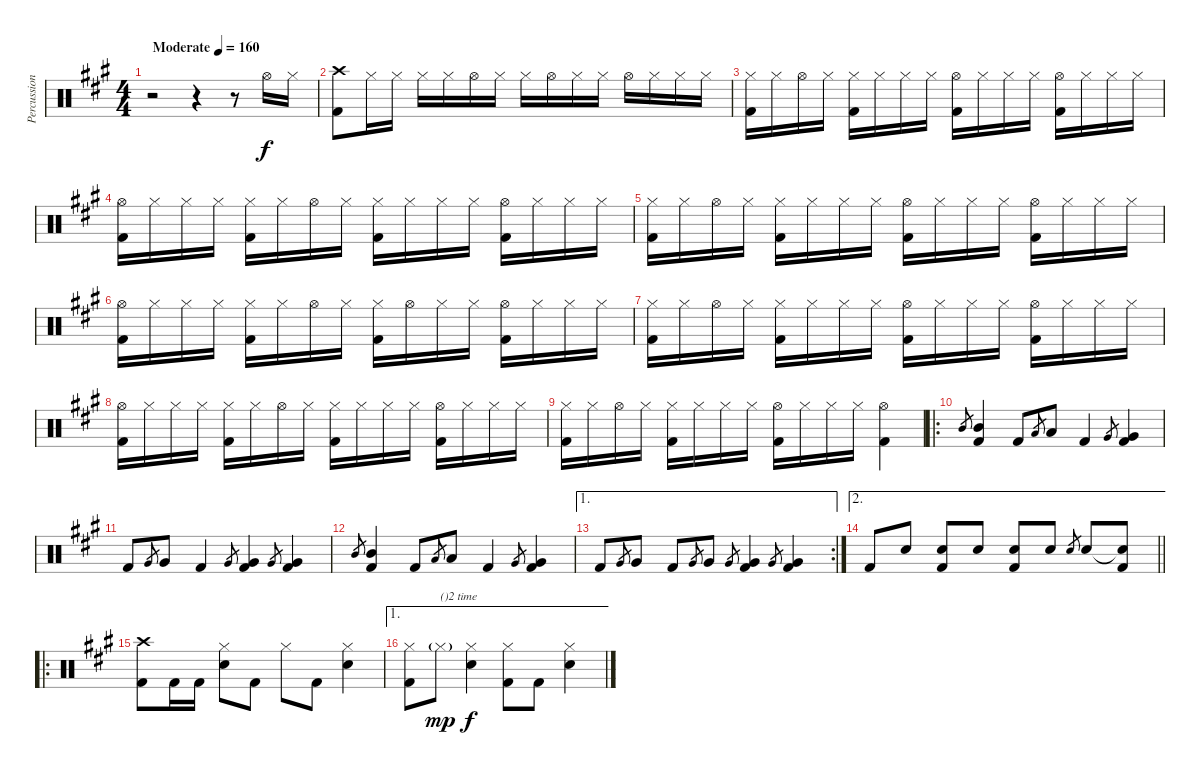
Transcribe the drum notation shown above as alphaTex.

\track ("Percussions" "Percussion") {instrument percussion}
\staff {score}
\articulation defaults
\ts (4 4)
\tempo (160 "Moderate")
\clef neutral
\ks a
r.2{dy f} r.4 r.8 "Hi-Hat (open)".16 "Hi-Hat (closed)".16 |
("Kick (hit) 2" "Crash high (hit)").8 "Hi-Hat (closed)".16 "Hi-Hat (closed)".16 "Hi-Hat (closed)".16 "Hi-Hat (closed)".16 "Hi-Hat (open)".16 "Hi-Hat (closed)".16 "Hi-Hat (closed)".16 "Hi-Hat (open)".16 "Hi-Hat (closed)".16 "Hi-Hat (closed)".16 "Hi-Hat (open)".16 "Hi-Hat (closed)".16 "Hi-Hat (closed)".16 "Hi-Hat (closed)".16 |
("Hi-Hat (closed)" "Kick (hit) 2").16 "Hi-Hat (closed)".16 "Hi-Hat (open)".16 "Hi-Hat (closed)".16 ("Hi-Hat (closed)" "Kick (hit) 2").16 "Hi-Hat (closed)".16 "Hi-Hat (closed)".16 "Hi-Hat (closed)".16 ("Hi-Hat (open)" "Kick (hit) 2").16 "Hi-Hat (closed)".16 "Hi-Hat (closed)".16 "Hi-Hat (closed)".16 ("Hi-Hat (open)" "Kick (hit) 2").16 "Hi-Hat (closed)".16 "Hi-Hat (closed)".16 "Hi-Hat (closed)".16 |
("Hi-Hat (open)" "Kick (hit) 2").16 "Hi-Hat (closed)".16 "Hi-Hat (closed)".16 "Hi-Hat (closed)".16 ("Hi-Hat (closed)" "Kick (hit) 2").16 "Hi-Hat (closed)".16 "Hi-Hat (open)".16 "Hi-Hat (closed)".16 ("Hi-Hat (closed)" "Kick (hit) 2").16 "Hi-Hat (closed)".16 "Hi-Hat (closed)".16 "Hi-Hat (closed)".16 ("Hi-Hat (open)" "Kick (hit) 2").16 "Hi-Hat (closed)".16 "Hi-Hat (closed)".16 "Hi-Hat (closed)".16 |
("Hi-Hat (closed)" "Kick (hit) 2").16 "Hi-Hat (closed)".16 "Hi-Hat (open)".16 "Hi-Hat (closed)".16 ("Hi-Hat (closed)" "Kick (hit) 2").16 "Hi-Hat (closed)".16 "Hi-Hat (closed)".16 "Hi-Hat (closed)".16 ("Hi-Hat (open)" "Kick (hit) 2").16 "Hi-Hat (closed)".16 "Hi-Hat (closed)".16 "Hi-Hat (closed)".16 ("Hi-Hat (open)" "Kick (hit) 2").16 "Hi-Hat (closed)".16 "Hi-Hat (closed)".16 "Hi-Hat (closed)".16 |
("Hi-Hat (open)" "Kick (hit) 2").16 "Hi-Hat (closed)".16 "Hi-Hat (closed)".16 "Hi-Hat (closed)".16 ("Hi-Hat (closed)" "Kick (hit) 2").16 "Hi-Hat (closed)".16 "Hi-Hat (open)".16 "Hi-Hat (closed)".16 ("Hi-Hat (closed)" "Kick (hit) 2").16 "Hi-Hat (open)".16 "Hi-Hat (closed)".16 "Hi-Hat (closed)".16 ("Hi-Hat (open)" "Kick (hit) 2").16 "Hi-Hat (closed)".16 "Hi-Hat (closed)".16 "Hi-Hat (closed)".16 |
("Hi-Hat (closed)" "Kick (hit) 2").16 "Hi-Hat (closed)".16 "Hi-Hat (open)".16 "Hi-Hat (closed)".16 ("Hi-Hat (closed)" "Kick (hit) 2").16 "Hi-Hat (closed)".16 "Hi-Hat (closed)".16 "Hi-Hat (closed)".16 ("Hi-Hat (open)" "Kick (hit) 2").16 "Hi-Hat (closed)".16 "Hi-Hat (closed)".16 "Hi-Hat (closed)".16 ("Hi-Hat (open)" "Kick (hit) 2").16 "Hi-Hat (closed)".16 "Hi-Hat (closed)".16 "Hi-Hat (closed)".16 |
("Hi-Hat (open)" "Kick (hit) 2").16 "Hi-Hat (closed)".16 "Hi-Hat (closed)".16 "Hi-Hat (closed)".16 ("Hi-Hat (closed)" "Kick (hit) 2").16 "Hi-Hat (closed)".16 "Hi-Hat (open)".16 "Hi-Hat (closed)".16 ("Hi-Hat (closed)" "Kick (hit) 2").16 "Hi-Hat (closed)".16 "Hi-Hat (closed)".16 "Hi-Hat (closed)".16 ("Hi-Hat (open)" "Kick (hit) 2").16 "Hi-Hat (closed)".16 "Hi-Hat (closed)".16 "Hi-Hat (closed)".16 |
("Hi-Hat (closed)" "Kick (hit) 2").16 "Hi-Hat (closed)".16 "Hi-Hat (open)".16 "Hi-Hat (closed)".16 ("Hi-Hat (closed)" "Kick (hit) 2").16 "Hi-Hat (closed)".16 "Hi-Hat (closed)".16 "Hi-Hat (closed)".16 ("Hi-Hat (open)" "Kick (hit) 2").16 "Hi-Hat (closed)".16 "Hi-Hat (closed)".16 "Hi-Hat (closed)".16 ("Hi-Hat (open)" "Kick (hit) 2").4 |
\ro "Mid Tom (hit)".8{gr}
("Kick (hit) 2" "Mid Tom (hit)").4 "Kick (hit) 2".8 "Low Tom (hit)".8{gr} "Low Tom (hit)".8 "Kick (hit) 2".4 "Very Low Tom (hit)".8{gr} ("Kick (hit) 2" "Very Low Tom (hit)").4 |
"Kick (hit) 2".8 "Very Low Tom (hit)".8{gr} "Very Low Tom (hit)".8 "Kick (hit) 2".4 "Very Low Tom (hit)".8{gr} ("Kick (hit) 2" "Very Low Tom (hit)").4 "Very Low Tom (hit)".8{gr} ("Kick (hit) 2" "Very Low Tom (hit)").4 |
"Mid Tom (hit)".8{gr} ("Kick (hit) 2" "Mid Tom (hit)").4 "Kick (hit) 2".8 "Low Tom (hit)".8{gr} "Low Tom (hit)".8 "Kick (hit) 2".4 "Very Low Tom (hit)".8{gr} ("Kick (hit) 2" "Very Low Tom (hit)").4 |
\ae 1
\rc 2 "Kick (hit) 2".8 "Very Low Tom (hit)".8{gr} "Very Low Tom (hit)".8 "Kick (hit) 2".8 "Very Low Tom (hit)".8{gr} "Very Low Tom (hit)".8 "Very Low Tom (hit)".8{gr}
("Kick (hit) 2" "Very Low Tom (hit)").4 "Very Low Tom (hit)".8{gr} ("Kick (hit) 2" "Very Low Tom (hit)").4 |
\ae 2
\barLineRight lightlight "Kick (hit) 2".8 "Snare (hit) 2".8
("Snare (hit) 2" "Kick (hit) 2").8 "Snare (hit) 2".8 ("Snare (hit) 2" "Kick (hit) 2").8 "Snare (hit) 2".8 "Snare (hit) 2".8{gr} "Snare (hit) 2".8 ("Snare (hit)"{t} "Kick (hit) 2").8 |
\ro
("Kick (hit) 2" "Crash high (hit)").8 "Kick (hit) 2".16 "Kick (hit) 2".16 ("Hi-Hat (closed)" "Snare (hit) 2").8 "Kick (hit) 2".8 "Hi-Hat (closed)".8 "Kick (hit) 2".8 ("Hi-Hat (closed)" "Snare (hit) 2").4 |
\ae 1
("Hi-Hat (closed)" "Kick (hit) 2").8 "Hi-Hat (closed)"{g}.8{txt "()2 time" dy mp} ("Hi-Hat (closed)" "Snare (hit) 2").4{dy f} ("Hi-Hat (closed)" "Kick (hit) 2").8 "Kick (hit) 2".8 ("Hi-Hat (closed)" "Snare (hit) 2").4
